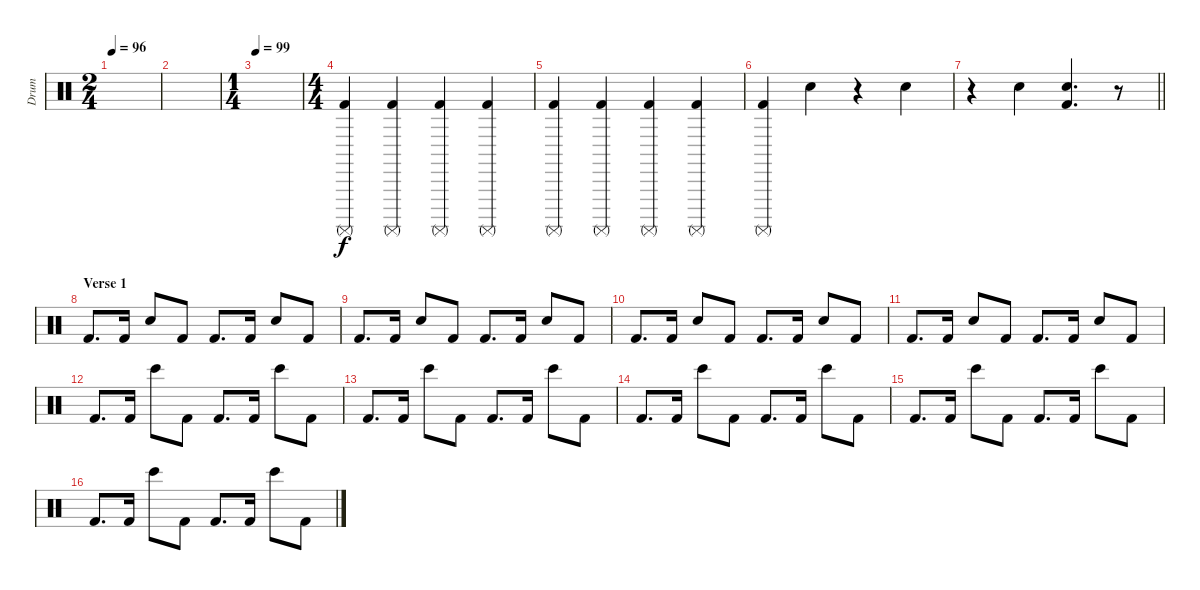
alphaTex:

\track ("Drum" "Drum") {instrument percussion}
\staff {score}
\articulation defaults
\ts (2 4)
\tempo 96
\clef neutral
\ks c
|
|
\ts (1 4)
\tempo 99
|
\ts (4 4)
("Surdo (mute)" "Kick (hit) 2").4 ("Surdo (mute)" "Kick (hit) 2").4 ("Surdo (mute)" "Kick (hit) 2").4 ("Surdo (mute)" "Kick (hit) 2").4 |
("Surdo (mute)" "Kick (hit) 2").4 ("Surdo (mute)" "Kick (hit) 2").4 ("Surdo (mute)" "Kick (hit) 2").4 ("Surdo (mute)" "Kick (hit) 2").4 |
("Surdo (mute)" "Kick (hit) 2").4 "Electric Snare (hit)".4 r.4 "Electric Snare (hit)".4 |
\barLineRight lightlight
r.4 "Electric Snare (hit)".4 ("Electric Snare (hit)" "Kick (hit) 2").4{d} r.8 |
\section ("" "Verse 1")
"Kick (hit) 2".8{d} "Kick (hit) 2".16 "Electric Snare (hit)".8 "Kick (hit) 2".8 "Kick (hit) 2".8{d} "Kick (hit) 2".16 "Electric Snare (hit)".8 "Kick (hit) 2".8 |
"Kick (hit) 2".8{d} "Kick (hit) 2".16 "Electric Snare (hit)".8 "Kick (hit) 2".8 "Kick (hit) 2".8{d} "Kick (hit) 2".16 "Electric Snare (hit)".8 "Kick (hit) 2".8 |
"Kick (hit) 2".8{d} "Kick (hit) 2".16 "Electric Snare (hit)".8 "Kick (hit) 2".8 "Kick (hit) 2".8{d} "Kick (hit) 2".16 "Electric Snare (hit)".8 "Kick (hit) 2".8 |
"Kick (hit) 2".8{d} "Kick (hit) 2".16 "Electric Snare (hit)".8 "Kick (hit) 2".8 "Kick (hit) 2".8{d} "Kick (hit) 2".16 "Electric Snare (hit)".8 "Kick (hit) 2".8 |
"Kick (hit) 2".8{d} "Kick (hit) 2".16 "Bongo High (hit)".8 "Kick (hit) 2".8 "Kick (hit) 2".8{d} "Kick (hit) 2".16 "Bongo High (hit)".8 "Kick (hit) 2".8 |
"Kick (hit) 2".8{d} "Kick (hit) 2".16 "Bongo High (hit)".8 "Kick (hit) 2".8 "Kick (hit) 2".8{d} "Kick (hit) 2".16 "Bongo High (hit)".8 "Kick (hit) 2".8 |
"Kick (hit) 2".8{d} "Kick (hit) 2".16 "Bongo High (hit)".8 "Kick (hit) 2".8 "Kick (hit) 2".8{d} "Kick (hit) 2".16 "Bongo High (hit)".8 "Kick (hit) 2".8 |
"Kick (hit) 2".8{d} "Kick (hit) 2".16 "Bongo High (hit)".8 "Kick (hit) 2".8 "Kick (hit) 2".8{d} "Kick (hit) 2".16 "Bongo High (hit)".8 "Kick (hit) 2".8 |
"Kick (hit) 2".8{d} "Kick (hit) 2".16 "Bongo High (hit)".8 "Kick (hit) 2".8 "Kick (hit) 2".8{d} "Kick (hit) 2".16 "Bongo High (hit)".8 "Kick (hit) 2".8
